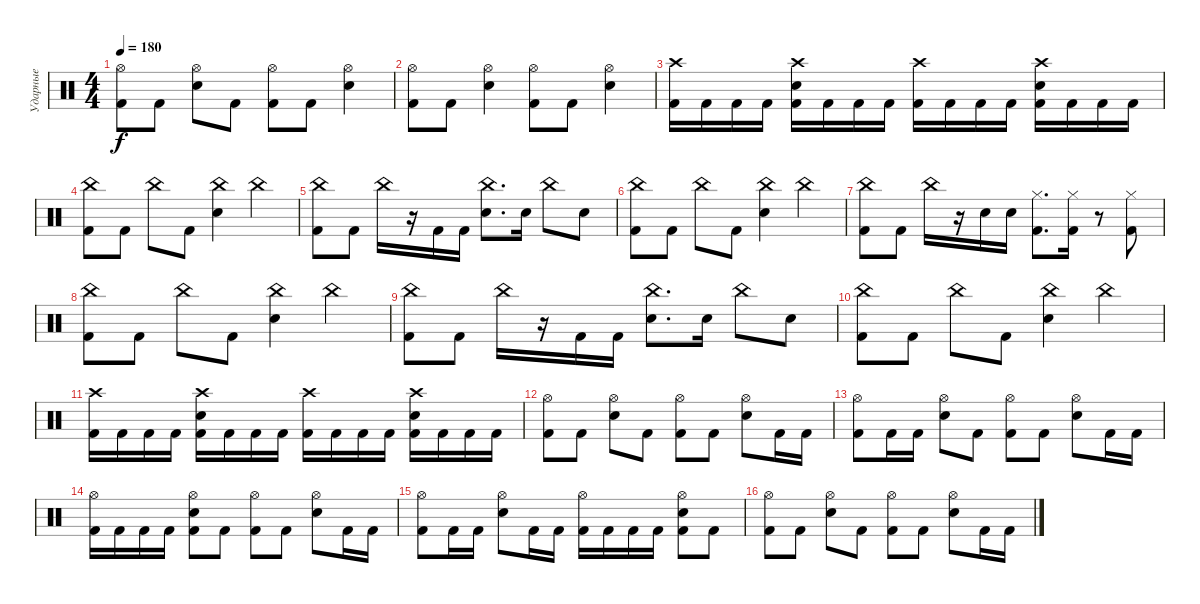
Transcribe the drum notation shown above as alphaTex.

\track ("Ударные" "Ударные") {instrument percussion}
\staff {score}
\articulation defaults
\ts (4 4)
\tempo 180
\clef neutral
\ks c
("Hi-Hat (open)" "Kick (hit) 2").8{dy f} "Kick (hit) 2".8 ("Hi-Hat (open)" "Electric Snare (hit)").8 "Kick (hit) 2".8 ("Hi-Hat (open)" "Kick (hit) 2").8 "Kick (hit) 2".8 ("Hi-Hat (open)" "Electric Snare (hit)").4 |
("Hi-Hat (open)" "Kick (hit) 2").8 "Kick (hit) 2".8 ("Hi-Hat (open)" "Electric Snare (hit)").4 ("Hi-Hat (open)" "Kick (hit) 2").8 "Kick (hit) 2".8 ("Hi-Hat (open)" "Electric Snare (hit)").4 |
("Crash high (hit)" "Kick (hit) 2").16 "Kick (hit) 2".16 "Kick (hit) 2".16 "Kick (hit) 2".16 ("Crash high (hit)" "Electric Snare (hit)" "Kick (hit) 2").16 "Kick (hit) 2".16 "Kick (hit) 2".16 "Kick (hit) 2".16 ("Crash high (hit)" "Kick (hit) 2").16 "Kick (hit) 2".16 "Kick (hit) 2".16 "Kick (hit) 2".16 ("Crash high (hit)" "Electric Snare (hit)" "Kick (hit) 2").16 "Kick (hit) 2".16 "Kick (hit) 2".16 "Kick (hit) 2".16 |
("China (hit)" "Kick (hit) 2").8 "Kick (hit) 2".8 "China (hit)".8 "Kick (hit) 2".8 ("China (hit)" "Electric Snare (hit)").4 "China (hit)".4 |
("China (hit)" "Kick (hit) 2").8 "Kick (hit) 2".8 "China (hit)".16 r.16 "Kick (hit) 2".16 "Kick (hit) 2".16 ("China (hit)" "Electric Snare (hit)").8{d} "Electric Snare (hit)".16 "China (hit)".8 "Electric Snare (hit)".8 |
("China (hit)" "Kick (hit) 2").8 "Kick (hit) 2".8 "China (hit)".8 "Kick (hit) 2".8 ("China (hit)" "Electric Snare (hit)").4 "China (hit)".4 |
("China (hit)" "Kick (hit) 2").8 "Kick (hit) 2".8 "China (hit)".16 r.16 "Electric Snare (hit)".16 "Electric Snare (hit)".16 ("Hi-Hat (closed)" "Kick (hit) 2").8{d} ("Hi-Hat (closed)" "Kick (hit) 2").16 r.8 ("Hi-Hat (closed)" "Kick (hit) 2").8 |
("China (hit)" "Kick (hit) 2").8 "Kick (hit) 2".8 "China (hit)".8 "Kick (hit) 2".8 ("China (hit)" "Electric Snare (hit)").4 "China (hit)".4 |
("China (hit)" "Kick (hit) 2").8 "Kick (hit) 2".8 "China (hit)".16 r.16 "Kick (hit) 2".16 "Kick (hit) 2".16 ("China (hit)" "Electric Snare (hit)").8{d} "Electric Snare (hit)".16 "China (hit)".8 "Electric Snare (hit)".8 |
("China (hit)" "Kick (hit) 2").8 "Kick (hit) 2".8 "China (hit)".8 "Kick (hit) 2".8 ("China (hit)" "Electric Snare (hit)").4 "China (hit)".4 |
("Crash high (hit)" "Kick (hit) 2").16 "Kick (hit) 2".16 "Kick (hit) 2".16 "Kick (hit) 2".16 ("Crash high (hit)" "Electric Snare (hit)" "Kick (hit) 2").16 "Kick (hit) 2".16 "Kick (hit) 2".16 "Kick (hit) 2".16 ("Crash high (hit)" "Kick (hit) 2").16 "Kick (hit) 2".16 "Kick (hit) 2".16 "Kick (hit) 2".16 ("Crash high (hit)" "Electric Snare (hit)" "Kick (hit) 2").16 "Kick (hit) 2".16 "Kick (hit) 2".16 "Kick (hit) 2".16 |
("Hi-Hat (open)" "Kick (hit) 2").8 "Kick (hit) 2".8 ("Hi-Hat (open)" "Electric Snare (hit)").8 "Kick (hit) 2".8 ("Hi-Hat (open)" "Kick (hit) 2").8 "Kick (hit) 2".8 ("Hi-Hat (open)" "Electric Snare (hit)").8 "Kick (hit) 2".16 "Kick (hit) 2".16 |
("Hi-Hat (open)" "Kick (hit) 2").8 "Kick (hit) 2".16 "Kick (hit) 2".16 ("Hi-Hat (open)" "Electric Snare (hit)").8 "Kick (hit) 2".8 ("Hi-Hat (open)" "Kick (hit) 2").8 "Kick (hit) 2".8 ("Hi-Hat (open)" "Electric Snare (hit)").8 "Kick (hit) 2".16 "Kick (hit) 2".16 |
("Hi-Hat (open)" "Kick (hit) 2").16 "Kick (hit) 2".16 "Kick (hit) 2".16 "Kick (hit) 2".16 ("Hi-Hat (open)" "Electric Snare (hit)" "Kick (hit) 2").8 "Kick (hit) 2".8 ("Hi-Hat (open)" "Kick (hit) 2").8 "Kick (hit) 2".8 ("Hi-Hat (open)" "Electric Snare (hit)").8 "Kick (hit) 2".16 "Kick (hit) 2".16 |
("Hi-Hat (open)" "Kick (hit) 2").8 "Kick (hit) 2".16 "Kick (hit) 2".16 ("Hi-Hat (open)" "Electric Snare (hit)").8 "Kick (hit) 2".16 "Kick (hit) 2".16 ("Hi-Hat (open)" "Kick (hit) 2").16 "Kick (hit) 2".16 "Kick (hit) 2".16 "Kick (hit) 2".16 ("Hi-Hat (open)" "Electric Snare (hit)" "Kick (hit) 2").8 "Kick (hit) 2".8 |
("Hi-Hat (open)" "Kick (hit) 2").8 "Kick (hit) 2".8 ("Hi-Hat (open)" "Electric Snare (hit)").8 "Kick (hit) 2".8 ("Hi-Hat (open)" "Kick (hit) 2").8 "Kick (hit) 2".8 ("Hi-Hat (open)" "Electric Snare (hit)").8 "Kick (hit) 2".16 "Kick (hit) 2".16
